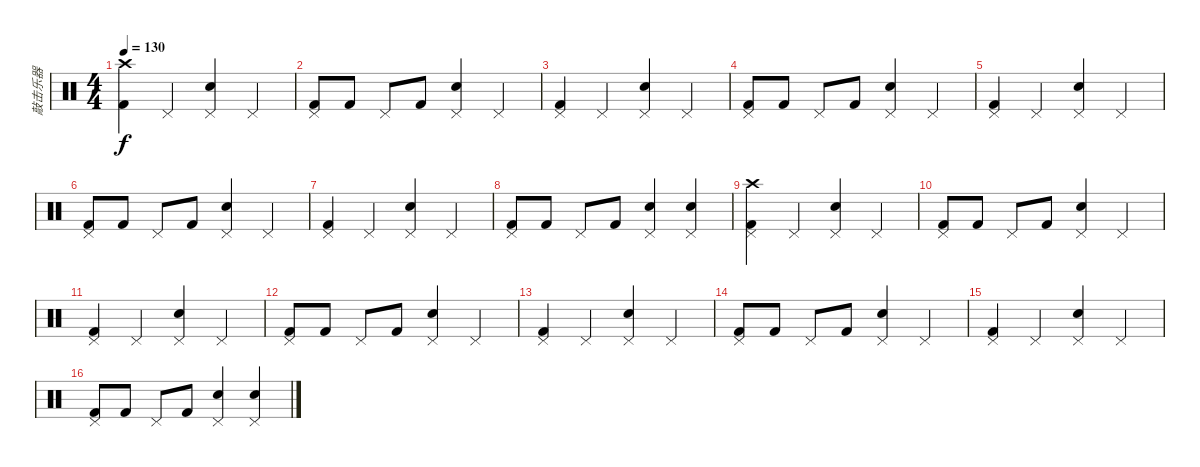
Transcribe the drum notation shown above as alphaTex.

\track ("敲击乐器" "敲击乐器") {instrument percussion}
\staff {score}
\articulation defaults
\ts (4 4)
\tempo 130
\clef neutral
\ks c
("Crash high (hit)" "Kick (hit) 2").4{dy f} "Pedal Hi-Hat (hit)".4 ("Pedal Hi-Hat (hit)" "Electric Snare (hit)").4 "Pedal Hi-Hat (hit)".4 |
("Pedal Hi-Hat (hit)" "Kick (hit) 2").8 "Kick (hit) 2".8 "Pedal Hi-Hat (hit)".8 "Kick (hit) 2".8 ("Pedal Hi-Hat (hit)" "Electric Snare (hit)").4 "Pedal Hi-Hat (hit)".4 |
("Kick (hit) 2" "Pedal Hi-Hat (hit)").4 "Pedal Hi-Hat (hit)".4 ("Pedal Hi-Hat (hit)" "Electric Snare (hit)").4 "Pedal Hi-Hat (hit)".4 |
("Pedal Hi-Hat (hit)" "Kick (hit) 2").8 "Kick (hit) 2".8 "Pedal Hi-Hat (hit)".8 "Kick (hit) 2".8 ("Pedal Hi-Hat (hit)" "Electric Snare (hit)").4 "Pedal Hi-Hat (hit)".4 |
("Kick (hit) 2" "Pedal Hi-Hat (hit)").4 "Pedal Hi-Hat (hit)".4 ("Pedal Hi-Hat (hit)" "Electric Snare (hit)").4 "Pedal Hi-Hat (hit)".4 |
("Pedal Hi-Hat (hit)" "Kick (hit) 2").8 "Kick (hit) 2".8 "Pedal Hi-Hat (hit)".8 "Kick (hit) 2".8 ("Pedal Hi-Hat (hit)" "Electric Snare (hit)").4 "Pedal Hi-Hat (hit)".4 |
("Kick (hit) 2" "Pedal Hi-Hat (hit)").4 "Pedal Hi-Hat (hit)".4 ("Pedal Hi-Hat (hit)" "Electric Snare (hit)").4 "Pedal Hi-Hat (hit)".4 |
("Pedal Hi-Hat (hit)" "Kick (hit) 2").8 "Kick (hit) 2".8 "Pedal Hi-Hat (hit)".8 "Kick (hit) 2".8 ("Pedal Hi-Hat (hit)" "Electric Snare (hit)").4 ("Pedal Hi-Hat (hit)" "Electric Snare (hit)").4 |
("Crash high (hit)" "Kick (hit) 2" "Pedal Hi-Hat (hit)").4 "Pedal Hi-Hat (hit)".4 ("Pedal Hi-Hat (hit)" "Electric Snare (hit)").4 "Pedal Hi-Hat (hit)".4 |
("Pedal Hi-Hat (hit)" "Kick (hit) 2").8 "Kick (hit) 2".8 "Pedal Hi-Hat (hit)".8 "Kick (hit) 2".8 ("Pedal Hi-Hat (hit)" "Electric Snare (hit)").4 "Pedal Hi-Hat (hit)".4 |
("Kick (hit) 2" "Pedal Hi-Hat (hit)").4 "Pedal Hi-Hat (hit)".4 ("Pedal Hi-Hat (hit)" "Electric Snare (hit)").4 "Pedal Hi-Hat (hit)".4 |
("Pedal Hi-Hat (hit)" "Kick (hit) 2").8 "Kick (hit) 2".8 "Pedal Hi-Hat (hit)".8 "Kick (hit) 2".8 ("Pedal Hi-Hat (hit)" "Electric Snare (hit)").4 "Pedal Hi-Hat (hit)".4 |
("Kick (hit) 2" "Pedal Hi-Hat (hit)").4 "Pedal Hi-Hat (hit)".4 ("Pedal Hi-Hat (hit)" "Electric Snare (hit)").4 "Pedal Hi-Hat (hit)".4 |
("Pedal Hi-Hat (hit)" "Kick (hit) 2").8 "Kick (hit) 2".8 "Pedal Hi-Hat (hit)".8 "Kick (hit) 2".8 ("Pedal Hi-Hat (hit)" "Electric Snare (hit)").4 "Pedal Hi-Hat (hit)".4 |
("Kick (hit) 2" "Pedal Hi-Hat (hit)").4 "Pedal Hi-Hat (hit)".4 ("Pedal Hi-Hat (hit)" "Electric Snare (hit)").4 "Pedal Hi-Hat (hit)".4 |
("Pedal Hi-Hat (hit)" "Kick (hit) 2").8 "Kick (hit) 2".8 "Pedal Hi-Hat (hit)".8 "Kick (hit) 2".8 ("Pedal Hi-Hat (hit)" "Electric Snare (hit)").4 ("Pedal Hi-Hat (hit)" "Electric Snare (hit)").4
